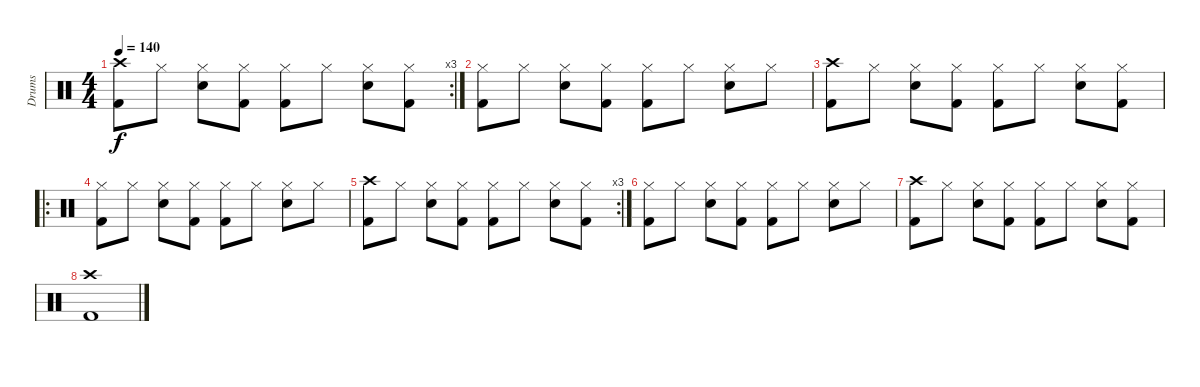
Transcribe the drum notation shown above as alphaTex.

\track ("Drums" "Drums") {instrument percussion}
\staff {score}
\articulation defaults
\rc 3
\ts (4 4)
\tempo 140
\clef neutral
\ks c
("Kick (hit) 2" "Crash high (hit)").8{dy f} "Hi-Hat (closed)".8 ("Hi-Hat (closed)" "Electric Snare (hit)").8 ("Kick (hit) 2" "Hi-Hat (closed)").8 ("Kick (hit) 2" "Hi-Hat (closed)").8 "Hi-Hat (closed)".8 ("Hi-Hat (closed)" "Electric Snare (hit)").8 ("Kick (hit) 2" "Hi-Hat (closed)").8 |
("Kick (hit) 2" "Hi-Hat (closed)").8 "Hi-Hat (closed)".8 ("Hi-Hat (closed)" "Electric Snare (hit)").8 ("Kick (hit) 2" "Hi-Hat (closed)").8 ("Kick (hit) 2" "Hi-Hat (closed)").8 "Hi-Hat (closed)".8 ("Hi-Hat (closed)" "Electric Snare (hit)").8 "Hi-Hat (closed)".8 |
("Kick (hit) 2" "Crash high (hit)").8 "Hi-Hat (closed)".8 ("Hi-Hat (closed)" "Electric Snare (hit)").8 ("Kick (hit) 2" "Hi-Hat (closed)").8 ("Kick (hit) 2" "Hi-Hat (closed)").8 "Hi-Hat (closed)".8 ("Hi-Hat (closed)" "Electric Snare (hit)").8 ("Kick (hit) 2" "Hi-Hat (closed)").8 |
\ro
("Kick (hit) 2" "Hi-Hat (closed)").8 "Hi-Hat (closed)".8 ("Hi-Hat (closed)" "Electric Snare (hit)").8 ("Kick (hit) 2" "Hi-Hat (closed)").8 ("Kick (hit) 2" "Hi-Hat (closed)").8 "Hi-Hat (closed)".8 ("Hi-Hat (closed)" "Electric Snare (hit)").8 "Hi-Hat (closed)".8 |
\rc 3
("Kick (hit) 2" "Crash high (hit)").8 "Hi-Hat (closed)".8 ("Hi-Hat (closed)" "Electric Snare (hit)").8 ("Kick (hit) 2" "Hi-Hat (closed)").8 ("Kick (hit) 2" "Hi-Hat (closed)").8 "Hi-Hat (closed)".8 ("Hi-Hat (closed)" "Electric Snare (hit)").8 ("Kick (hit) 2" "Hi-Hat (closed)").8 |
("Kick (hit) 2" "Hi-Hat (closed)").8 "Hi-Hat (closed)".8 ("Hi-Hat (closed)" "Electric Snare (hit)").8 ("Kick (hit) 2" "Hi-Hat (closed)").8 ("Kick (hit) 2" "Hi-Hat (closed)").8 "Hi-Hat (closed)".8 ("Hi-Hat (closed)" "Electric Snare (hit)").8 "Hi-Hat (closed)".8 |
("Kick (hit) 2" "Crash high (hit)").8 "Hi-Hat (closed)".8 ("Hi-Hat (closed)" "Electric Snare (hit)").8 ("Kick (hit) 2" "Hi-Hat (closed)").8 ("Kick (hit) 2" "Hi-Hat (closed)").8 "Hi-Hat (closed)".8 ("Hi-Hat (closed)" "Electric Snare (hit)").8 ("Kick (hit) 2" "Hi-Hat (closed)").8 |
("Kick (hit) 2" "Crash high (hit)").1
